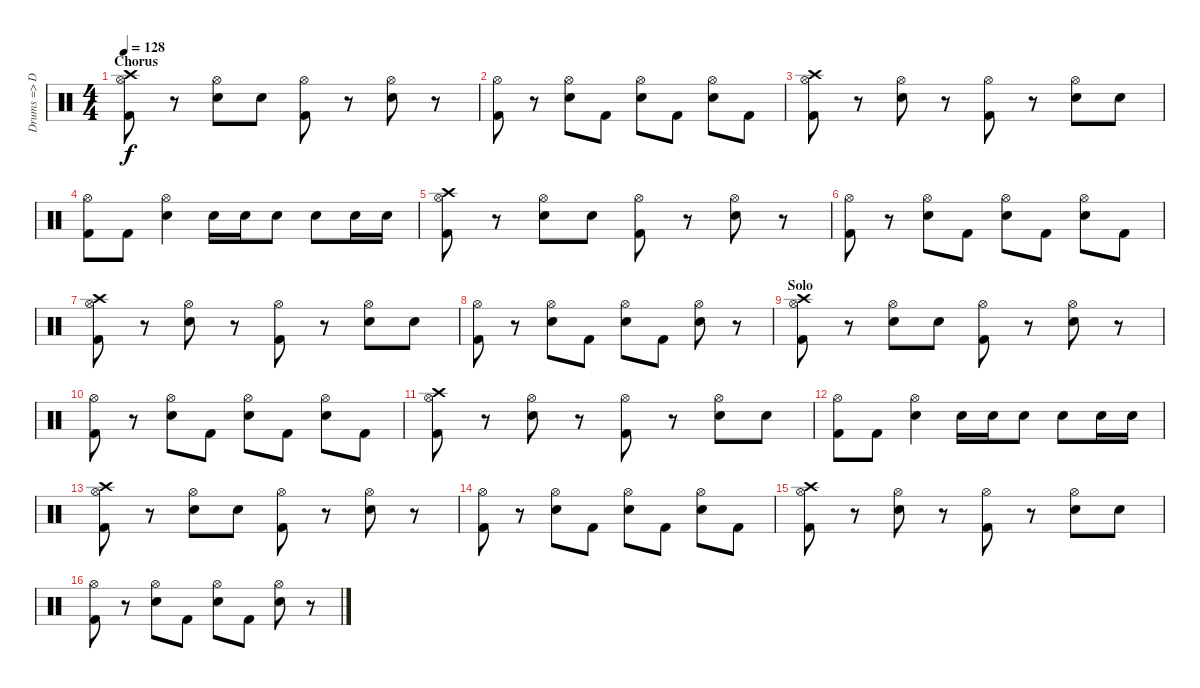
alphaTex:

\track ("Drums => Dave" "Drums => D") {instrument percussion}
\staff {score}
\articulation defaults
\ts (4 4)
\section ("" "Chorus")
\tempo 128
\clef neutral
\ks c
("Hi-Hat (open)" "Crash high (hit)" "Kick (hit) 2").8{dy f} r.8 ("Hi-Hat (open)" "Snare (hit) 2").8 "Snare (hit) 2".8 ("Hi-Hat (open)" "Kick (hit) 2").8 r.8 ("Hi-Hat (open)" "Snare (hit) 2").8 r.8 |
("Hi-Hat (open)" "Kick (hit) 2").8 r.8 ("Hi-Hat (open)" "Snare (hit) 2").8 "Kick (hit) 2".8 ("Hi-Hat (open)" "Snare (hit) 2").8 "Kick (hit) 2".8 ("Hi-Hat (open)" "Snare (hit) 2").8 "Kick (hit) 2".8 |
("Hi-Hat (open)" "Crash high (hit)" "Kick (hit) 2").8 r.8 ("Hi-Hat (open)" "Snare (hit) 2").8 r.8 ("Hi-Hat (open)" "Kick (hit) 2").8 r.8 ("Hi-Hat (open)" "Snare (hit) 2").8 "Snare (hit) 2".8 |
("Hi-Hat (open)" "Kick (hit) 2").8 "Kick (hit) 2".8 ("Hi-Hat (open)" "Snare (hit) 2").4 "Snare (hit) 2".16 "Snare (hit) 2".16 "Snare (hit) 2".8 "Snare (hit) 2".8 "Snare (hit) 2".16 "Snare (hit) 2".16 |
("Hi-Hat (open)" "Crash high (hit)" "Kick (hit) 2").8 r.8 ("Hi-Hat (open)" "Snare (hit) 2").8 "Snare (hit) 2".8 ("Hi-Hat (open)" "Kick (hit) 2").8 r.8 ("Hi-Hat (open)" "Snare (hit) 2").8 r.8 |
("Hi-Hat (open)" "Kick (hit) 2").8 r.8 ("Hi-Hat (open)" "Snare (hit) 2").8 "Kick (hit) 2".8 ("Hi-Hat (open)" "Snare (hit) 2").8 "Kick (hit) 2".8 ("Hi-Hat (open)" "Snare (hit) 2").8 "Kick (hit) 2".8 |
("Hi-Hat (open)" "Crash high (hit)" "Kick (hit) 2").8 r.8 ("Hi-Hat (open)" "Snare (hit) 2").8 r.8 ("Hi-Hat (open)" "Kick (hit) 2").8 r.8 ("Hi-Hat (open)" "Snare (hit) 2").8 "Snare (hit) 2".8 |
("Hi-Hat (open)" "Kick (hit) 2").8 r.8 ("Hi-Hat (open)" "Snare (hit) 2").8 "Kick (hit) 2".8 ("Hi-Hat (open)" "Snare (hit) 2").8 "Kick (hit) 2".8 ("Hi-Hat (open)" "Snare (hit) 2").8 r.8 |
\section ("" "Solo")
("Hi-Hat (open)" "Crash high (hit)" "Kick (hit) 2").8 r.8 ("Hi-Hat (open)" "Snare (hit) 2").8 "Snare (hit) 2".8 ("Hi-Hat (open)" "Kick (hit) 2").8 r.8 ("Hi-Hat (open)" "Snare (hit) 2").8 r.8 |
("Hi-Hat (open)" "Kick (hit) 2").8 r.8 ("Hi-Hat (open)" "Snare (hit) 2").8 "Kick (hit) 2".8 ("Hi-Hat (open)" "Snare (hit) 2").8 "Kick (hit) 2".8 ("Hi-Hat (open)" "Snare (hit) 2").8 "Kick (hit) 2".8 |
("Hi-Hat (open)" "Crash high (hit)" "Kick (hit) 2").8 r.8 ("Hi-Hat (open)" "Snare (hit) 2").8 r.8 ("Hi-Hat (open)" "Kick (hit) 2").8 r.8 ("Hi-Hat (open)" "Snare (hit) 2").8 "Snare (hit) 2".8 |
("Hi-Hat (open)" "Kick (hit) 2").8 "Kick (hit) 2".8 ("Hi-Hat (open)" "Snare (hit) 2").4 "Snare (hit) 2".16 "Snare (hit) 2".16 "Snare (hit) 2".8 "Snare (hit) 2".8 "Snare (hit) 2".16 "Snare (hit) 2".16 |
("Hi-Hat (open)" "Crash high (hit)" "Kick (hit) 2").8 r.8 ("Hi-Hat (open)" "Snare (hit) 2").8 "Snare (hit) 2".8 ("Hi-Hat (open)" "Kick (hit) 2").8 r.8 ("Hi-Hat (open)" "Snare (hit) 2").8 r.8 |
("Hi-Hat (open)" "Kick (hit) 2").8 r.8 ("Hi-Hat (open)" "Snare (hit) 2").8 "Kick (hit) 2".8 ("Hi-Hat (open)" "Snare (hit) 2").8 "Kick (hit) 2".8 ("Hi-Hat (open)" "Snare (hit) 2").8 "Kick (hit) 2".8 |
("Hi-Hat (open)" "Crash high (hit)" "Kick (hit) 2").8 r.8 ("Hi-Hat (open)" "Snare (hit) 2").8 r.8 ("Hi-Hat (open)" "Kick (hit) 2").8 r.8 ("Hi-Hat (open)" "Snare (hit) 2").8 "Snare (hit) 2".8 |
("Hi-Hat (open)" "Kick (hit) 2").8 r.8 ("Hi-Hat (open)" "Snare (hit) 2").8 "Kick (hit) 2".8 ("Hi-Hat (open)" "Snare (hit) 2").8 "Kick (hit) 2".8 ("Hi-Hat (open)" "Snare (hit) 2").8 r.8
